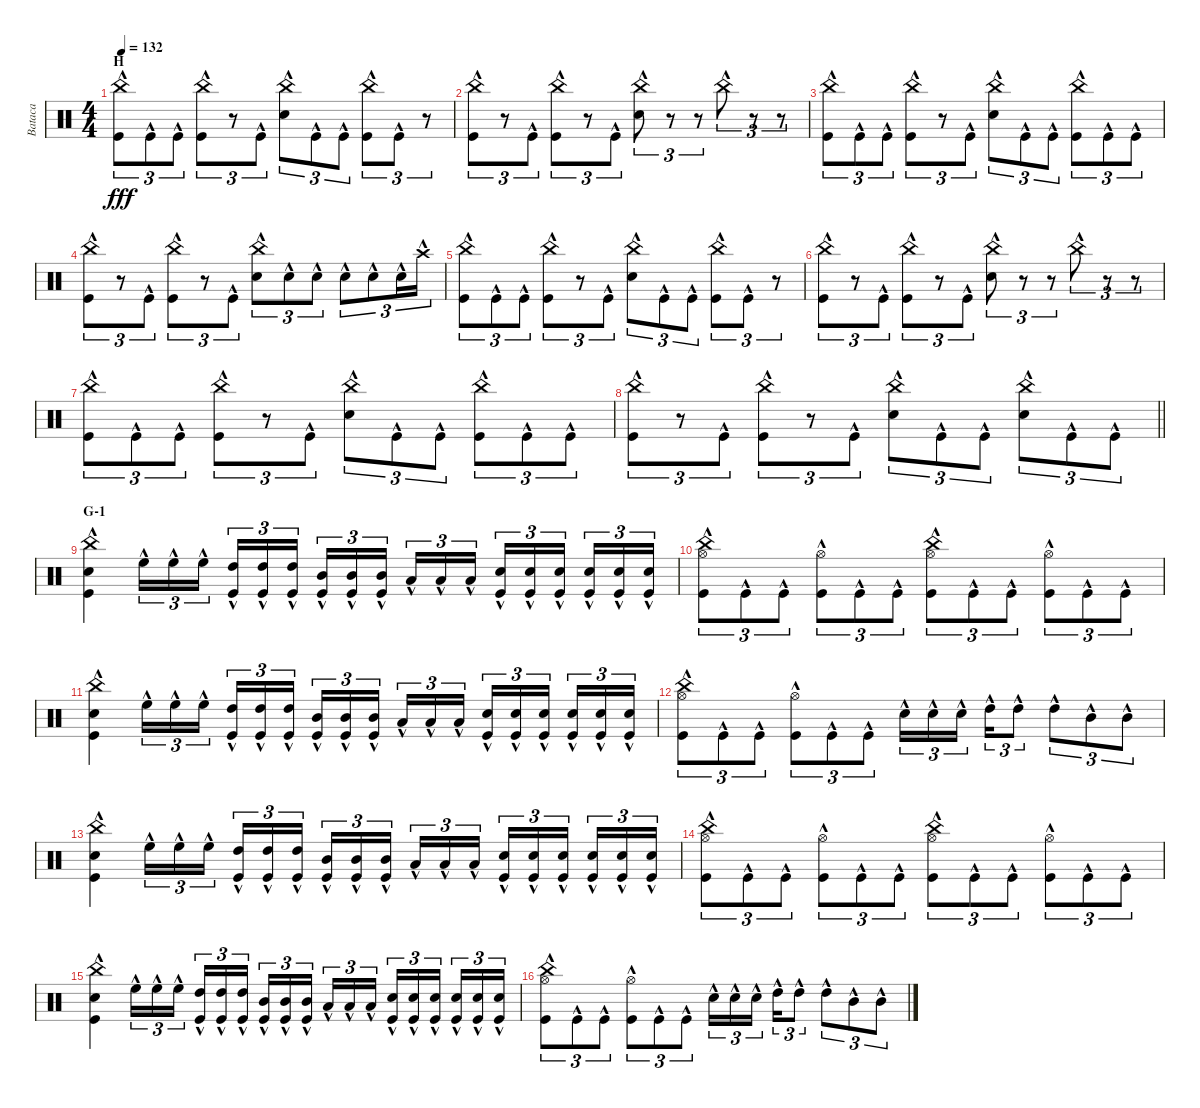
\track ("Bataca" "Bataca") {instrument percussion}
\staff {score}
\articulation defaults
\ts (4 4)
\section ("" "H")
\tempo 132
\clef neutral
\ks c
("China (hit)"{hac} "Kick (hit)"{hac}).8{tu (3 2) dy fff} "Kick (hit)"{hac}.8{tu (3 2)} "Kick (hit)"{hac}.8{tu (3 2)} ("China (hit)"{hac} "Kick (hit)"{hac}).8{tu (3 2)} r.8{tu (3 2)} "Kick (hit)"{hac}.8{tu (3 2)} ("China (hit)"{hac} "Electric Snare (hit)"{hac}).8{tu (3 2)} "Kick (hit)"{hac}.8{tu (3 2)} "Kick (hit)"{hac}.8{tu (3 2)} ("China (hit)"{hac} "Kick (hit)"{hac}).8{tu (3 2)} "Kick (hit)"{hac}.8{tu (3 2)} r.8{tu (3 2)} |
("China (hit)"{hac} "Kick (hit)"{hac}).8{tu (3 2)} r.8{tu (3 2)} "Kick (hit)"{hac}.8{tu (3 2)} ("China (hit)"{hac} "Kick (hit)"{hac}).8{tu (3 2)} r.8{tu (3 2)} "Kick (hit)"{hac}.8{tu (3 2)} ("China (hit)"{hac} "Electric Snare (hit)"{hac}).8{tu (3 2)} r.8{tu (3 2)} r.8{tu (3 2)} "China (hit)"{hac}.8{tu (3 2)} r.8{tu (3 2)} r.8{tu (3 2)} |
("China (hit)"{hac} "Kick (hit)"{hac}).8{tu (3 2)} "Kick (hit)"{hac}.8{tu (3 2)} "Kick (hit)"{hac}.8{tu (3 2)} ("China (hit)"{hac} "Kick (hit)"{hac}).8{tu (3 2)} r.8{tu (3 2)} "Kick (hit)"{hac}.8{tu (3 2)} ("China (hit)"{hac} "Electric Snare (hit)"{hac}).8{tu (3 2)} "Kick (hit)"{hac}.8{tu (3 2)} "Kick (hit)"{hac}.8{tu (3 2)} ("China (hit)"{hac} "Kick (hit)"{hac}).8{tu (3 2)} "Kick (hit)"{hac}.8{tu (3 2)} "Kick (hit)"{hac}.8{tu (3 2)} |
("China (hit)"{hac} "Kick (hit)"{hac}).8{tu (3 2)} r.8{tu (3 2)} "Kick (hit)"{hac}.8{tu (3 2)} ("China (hit)"{hac} "Kick (hit)"{hac}).8{tu (3 2)} r.8{tu (3 2)} "Kick (hit)"{hac}.8{tu (3 2)} ("China (hit)"{hac} "Electric Snare (hit)"{hac}).8{tu (3 2)} "Electric Snare (hit)"{hac}.8{tu (3 2)} "Electric Snare (hit)"{hac}.8{tu (3 2)} "Electric Snare (hit)"{hac}.8{tu (3 2)} "Electric Snare (hit)"{hac}.8{tu (3 2)} "Electric Snare (hit)"{hac}.16{tu (3 2)} "Crash high (hit)"{hac}.16{tu (3 2)} |
("China (hit)"{hac} "Kick (hit)"{hac}).8{tu (3 2)} "Kick (hit)"{hac}.8{tu (3 2)} "Kick (hit)"{hac}.8{tu (3 2)} ("China (hit)"{hac} "Kick (hit)"{hac}).8{tu (3 2)} r.8{tu (3 2)} "Kick (hit)"{hac}.8{tu (3 2)} ("China (hit)"{hac} "Electric Snare (hit)"{hac}).8{tu (3 2)} "Kick (hit)"{hac}.8{tu (3 2)} "Kick (hit)"{hac}.8{tu (3 2)} ("China (hit)"{hac} "Kick (hit)"{hac}).8{tu (3 2)} "Kick (hit)"{hac}.8{tu (3 2)} r.8{tu (3 2)} |
("China (hit)"{hac} "Kick (hit)"{hac}).8{tu (3 2)} r.8{tu (3 2)} "Kick (hit)"{hac}.8{tu (3 2)} ("China (hit)"{hac} "Kick (hit)"{hac}).8{tu (3 2)} r.8{tu (3 2)} "Kick (hit)"{hac}.8{tu (3 2)} ("China (hit)"{hac} "Electric Snare (hit)"{hac}).8{tu (3 2)} r.8{tu (3 2)} r.8{tu (3 2)} "China (hit)"{hac}.8{tu (3 2)} r.8{tu (3 2)} r.8{tu (3 2)} |
("China (hit)"{hac} "Kick (hit)"{hac}).8{tu (3 2)} "Kick (hit)"{hac}.8{tu (3 2)} "Kick (hit)"{hac}.8{tu (3 2)} ("China (hit)"{hac} "Kick (hit)"{hac}).8{tu (3 2)} r.8{tu (3 2)} "Kick (hit)"{hac}.8{tu (3 2)} ("China (hit)"{hac} "Electric Snare (hit)"{hac}).8{tu (3 2)} "Kick (hit)"{hac}.8{tu (3 2)} "Kick (hit)"{hac}.8{tu (3 2)} ("China (hit)"{hac} "Kick (hit)"{hac}).8{tu (3 2)} "Kick (hit)"{hac}.8{tu (3 2)} "Kick (hit)"{hac}.8{tu (3 2)} |
\barLineRight lightlight
("China (hit)"{hac} "Kick (hit)"{hac}).8{tu (3 2)} r.8{tu (3 2)} "Kick (hit)"{hac}.8{tu (3 2)} ("China (hit)"{hac} "Kick (hit)"{hac}).8{tu (3 2)} r.8{tu (3 2)} "Kick (hit)"{hac}.8{tu (3 2)} ("China (hit)"{hac} "Electric Snare (hit)"{hac}).8{tu (3 2)} "Kick (hit)"{hac}.8{tu (3 2)} "Kick (hit)"{hac}.8{tu (3 2)} ("China (hit)"{hac} "Electric Snare (hit)"{hac}).8{tu (3 2)} "Kick (hit)"{hac}.8{tu (3 2)} "Kick (hit)"{hac}.8{tu (3 2)} |
\section ("" "G-1")
("China (hit)"{hac} "Electric Snare (hit)"{hac} "Kick (hit)"{hac}).4{volume 13} "High Floor Tom (hit)"{hac}.16{tu (3 2)} "High Floor Tom (hit)"{hac}.16{tu (3 2)} "High Floor Tom (hit)"{hac}.16{tu (3 2) beam splitsecondary} ("High Tom (hit)"{hac} "Kick (hit)"{hac}).16{tu (3 2)} ("High Tom (hit)"{hac} "Kick (hit)"{hac}).16{tu (3 2)} ("High Tom (hit)"{hac} "Kick (hit)"{hac}).16{tu (3 2)} ("Mid Tom (hit)"{hac} "Kick (hit)"{hac}).16{tu (3 2)} ("Mid Tom (hit)"{hac} "Kick (hit)"{hac}).16{tu (3 2)} ("Mid Tom (hit)"{hac} "Kick (hit)"{hac}).16{tu (3 2) beam splitsecondary} "Low Tom (hit)"{hac}.16{tu (3 2)} "Low Tom (hit)"{hac}.16{tu (3 2)} "Low Tom (hit)"{hac}.16{tu (3 2)} ("Electric Snare (hit)"{hac} "Kick (hit)"{hac}).16{tu (3 2)} ("Electric Snare (hit)"{hac} "Kick (hit)"{hac}).16{tu (3 2)} ("Electric Snare (hit)"{hac} "Kick (hit)"{hac}).16{tu (3 2) beam splitsecondary} ("Electric Snare (hit)"{hac} "Kick (hit)"{hac}).16{tu (3 2)} ("Electric Snare (hit)"{hac} "Kick (hit)"{hac}).16{tu (3 2)} ("Electric Snare (hit)"{hac} "Kick (hit)"{hac}).16{tu (3 2)} |
("China (hit)"{hac} "Hi-Hat (open)"{hac} "Kick (hit)"{hac}).8{tu (3 2)} "Kick (hit)"{hac}.8{tu (3 2)} "Kick (hit)"{hac}.8{tu (3 2)} ("Hi-Hat (open)"{hac} "Kick (hit)"{hac}).8{tu (3 2)} "Kick (hit)"{hac}.8{tu (3 2)} "Kick (hit)"{hac}.8{tu (3 2)} ("China (hit)"{hac} "Hi-Hat (open)"{hac} "Kick (hit)"{hac}).8{tu (3 2)} "Kick (hit)"{hac}.8{tu (3 2)} "Kick (hit)"{hac}.8{tu (3 2)} ("Hi-Hat (open)"{hac} "Kick (hit)"{hac}).8{tu (3 2)} "Kick (hit)"{hac}.8{tu (3 2)} "Kick (hit)"{hac}.8{tu (3 2)} |
("China (hit)"{hac} "Electric Snare (hit)"{hac} "Kick (hit)"{hac}).4 "High Floor Tom (hit)"{hac}.16{tu (3 2)} "High Floor Tom (hit)"{hac}.16{tu (3 2)} "High Floor Tom (hit)"{hac}.16{tu (3 2) beam splitsecondary} ("High Tom (hit)"{hac} "Kick (hit)"{hac}).16{tu (3 2)} ("High Tom (hit)"{hac} "Kick (hit)"{hac}).16{tu (3 2)} ("High Tom (hit)"{hac} "Kick (hit)"{hac}).16{tu (3 2)} ("Mid Tom (hit)"{hac} "Kick (hit)"{hac}).16{tu (3 2)} ("Mid Tom (hit)"{hac} "Kick (hit)"{hac}).16{tu (3 2)} ("Mid Tom (hit)"{hac} "Kick (hit)"{hac}).16{tu (3 2) beam splitsecondary} "Low Tom (hit)"{hac}.16{tu (3 2)} "Low Tom (hit)"{hac}.16{tu (3 2)} "Low Tom (hit)"{hac}.16{tu (3 2)} ("Electric Snare (hit)"{hac} "Kick (hit)"{hac}).16{tu (3 2)} ("Electric Snare (hit)"{hac} "Kick (hit)"{hac}).16{tu (3 2)} ("Electric Snare (hit)"{hac} "Kick (hit)"{hac}).16{tu (3 2) beam splitsecondary} ("Electric Snare (hit)"{hac} "Kick (hit)"{hac}).16{tu (3 2)} ("Electric Snare (hit)"{hac} "Kick (hit)"{hac}).16{tu (3 2)} ("Electric Snare (hit)"{hac} "Kick (hit)"{hac}).16{tu (3 2)} |
("China (hit)"{hac} "Hi-Hat (open)"{hac} "Kick (hit)"{hac}).8{tu (3 2)} "Kick (hit)"{hac}.8{tu (3 2)} "Kick (hit)"{hac}.8{tu (3 2)} ("Hi-Hat (open)"{hac} "Kick (hit)"{hac}).8{tu (3 2)} "Kick (hit)"{hac}.8{tu (3 2)} "Kick (hit)"{hac}.8{tu (3 2)} "Electric Snare (hit)"{hac}.16{tu (3 2)} "Electric Snare (hit)"{hac}.16{tu (3 2)} "Electric Snare (hit)"{hac}.16{tu (3 2) beam splitsecondary} "High Tom (hit)"{hac}.16{tu (3 2)} "High Tom (hit)"{hac}.8{tu (3 2)} "High Tom (hit)"{hac}.8{tu (3 2)} "Mid Tom (hit)"{hac}.8{tu (3 2)} "Mid Tom (hit)"{hac}.8{tu (3 2)} |
("China (hit)"{hac} "Electric Snare (hit)"{hac} "Kick (hit)"{hac}).4 "High Floor Tom (hit)"{hac}.16{tu (3 2)} "High Floor Tom (hit)"{hac}.16{tu (3 2)} "High Floor Tom (hit)"{hac}.16{tu (3 2) beam splitsecondary} ("High Tom (hit)"{hac} "Kick (hit)"{hac}).16{tu (3 2)} ("High Tom (hit)"{hac} "Kick (hit)"{hac}).16{tu (3 2)} ("High Tom (hit)"{hac} "Kick (hit)"{hac}).16{tu (3 2)} ("Mid Tom (hit)"{hac} "Kick (hit)"{hac}).16{tu (3 2)} ("Mid Tom (hit)"{hac} "Kick (hit)"{hac}).16{tu (3 2)} ("Mid Tom (hit)"{hac} "Kick (hit)"{hac}).16{tu (3 2) beam splitsecondary} "Low Tom (hit)"{hac}.16{tu (3 2)} "Low Tom (hit)"{hac}.16{tu (3 2)} "Low Tom (hit)"{hac}.16{tu (3 2)} ("Electric Snare (hit)"{hac} "Kick (hit)"{hac}).16{tu (3 2)} ("Electric Snare (hit)"{hac} "Kick (hit)"{hac}).16{tu (3 2)} ("Electric Snare (hit)"{hac} "Kick (hit)"{hac}).16{tu (3 2) beam splitsecondary} ("Electric Snare (hit)"{hac} "Kick (hit)"{hac}).16{tu (3 2)} ("Electric Snare (hit)"{hac} "Kick (hit)"{hac}).16{tu (3 2)} ("Electric Snare (hit)"{hac} "Kick (hit)"{hac}).16{tu (3 2)} |
("China (hit)"{hac} "Hi-Hat (open)"{hac} "Kick (hit)"{hac}).8{tu (3 2)} "Kick (hit)"{hac}.8{tu (3 2)} "Kick (hit)"{hac}.8{tu (3 2)} ("Hi-Hat (open)"{hac} "Kick (hit)"{hac}).8{tu (3 2)} "Kick (hit)"{hac}.8{tu (3 2)} "Kick (hit)"{hac}.8{tu (3 2)} ("China (hit)"{hac} "Hi-Hat (open)"{hac} "Kick (hit)"{hac}).8{tu (3 2)} "Kick (hit)"{hac}.8{tu (3 2)} "Kick (hit)"{hac}.8{tu (3 2)} ("Hi-Hat (open)"{hac} "Kick (hit)"{hac}).8{tu (3 2)} "Kick (hit)"{hac}.8{tu (3 2)} "Kick (hit)"{hac}.8{tu (3 2)} |
("China (hit)"{hac} "Electric Snare (hit)"{hac} "Kick (hit)"{hac}).4 "High Floor Tom (hit)"{hac}.16{tu (3 2)} "High Floor Tom (hit)"{hac}.16{tu (3 2)} "High Floor Tom (hit)"{hac}.16{tu (3 2) beam splitsecondary} ("High Tom (hit)"{hac} "Kick (hit)"{hac}).16{tu (3 2)} ("High Tom (hit)"{hac} "Kick (hit)"{hac}).16{tu (3 2)} ("High Tom (hit)"{hac} "Kick (hit)"{hac}).16{tu (3 2)} ("Mid Tom (hit)"{hac} "Kick (hit)"{hac}).16{tu (3 2)} ("Mid Tom (hit)"{hac} "Kick (hit)"{hac}).16{tu (3 2)} ("Mid Tom (hit)"{hac} "Kick (hit)"{hac}).16{tu (3 2) beam splitsecondary} "Low Tom (hit)"{hac}.16{tu (3 2)} "Low Tom (hit)"{hac}.16{tu (3 2)} "Low Tom (hit)"{hac}.16{tu (3 2)} ("Electric Snare (hit)"{hac} "Kick (hit)"{hac}).16{tu (3 2)} ("Electric Snare (hit)"{hac} "Kick (hit)"{hac}).16{tu (3 2)} ("Electric Snare (hit)"{hac} "Kick (hit)"{hac}).16{tu (3 2) beam splitsecondary} ("Electric Snare (hit)"{hac} "Kick (hit)"{hac}).16{tu (3 2)} ("Electric Snare (hit)"{hac} "Kick (hit)"{hac}).16{tu (3 2)} ("Electric Snare (hit)"{hac} "Kick (hit)"{hac}).16{tu (3 2)} |
("China (hit)"{hac} "Hi-Hat (open)"{hac} "Kick (hit)"{hac}).8{tu (3 2)} "Kick (hit)"{hac}.8{tu (3 2)} "Kick (hit)"{hac}.8{tu (3 2)} ("Hi-Hat (open)"{hac} "Kick (hit)"{hac}).8{tu (3 2)} "Kick (hit)"{hac}.8{tu (3 2)} "Kick (hit)"{hac}.8{tu (3 2)} "Electric Snare (hit)"{hac}.16{tu (3 2)} "Electric Snare (hit)"{hac}.16{tu (3 2)} "Electric Snare (hit)"{hac}.16{tu (3 2) beam splitsecondary} "High Tom (hit)"{hac}.16{tu (3 2)} "High Tom (hit)"{hac}.8{tu (3 2)} "High Tom (hit)"{hac}.8{tu (3 2)} "Mid Tom (hit)"{hac}.8{tu (3 2)} "Mid Tom (hit)"{hac}.8{tu (3 2)}
